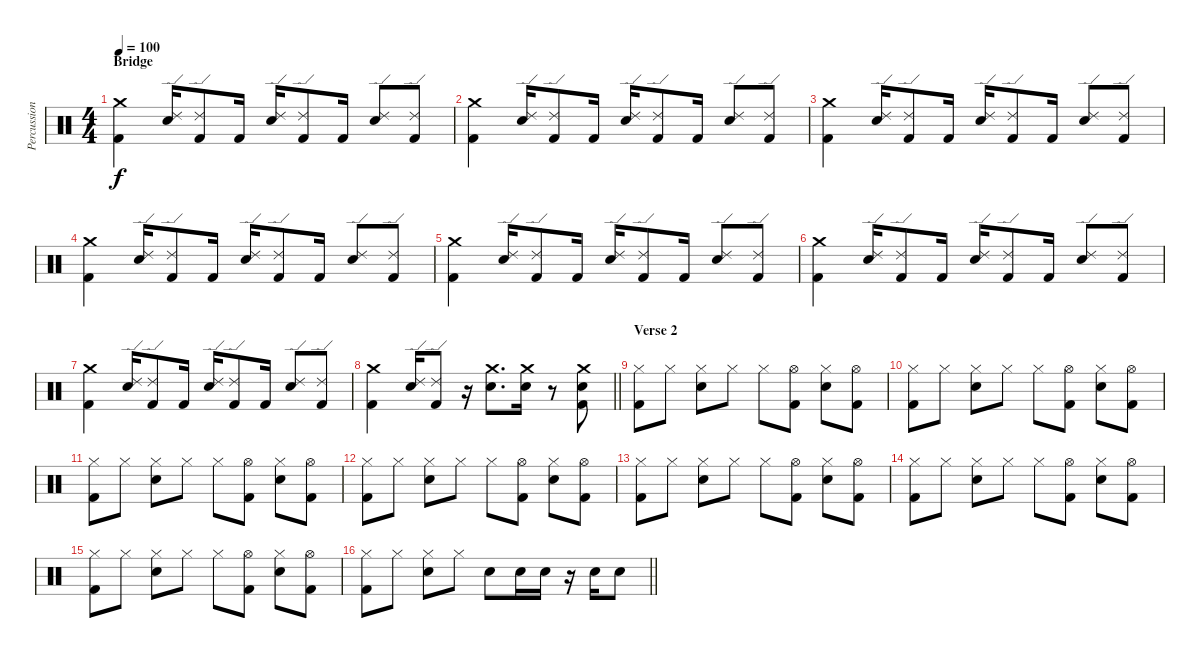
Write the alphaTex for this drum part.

\track ("Percussion" "Percussion") {instrument percussion}
\staff {score}
\articulation defaults
\ts (4 4)
\section ("" "Bridge")
\tempo 100
\clef neutral
\ks c
("Crash medium (hit)" "Kick (hit) 2").4{dy f} ("Ride (edge) 2" "Snare (hit) 2").16 ("Ride (edge) 2" "Kick (hit) 2").8 "Kick (hit) 2".16 ("Ride (edge) 2" "Snare (hit) 2").16 ("Ride (edge) 2" "Kick (hit) 2").8 "Kick (hit) 2".16 ("Ride (edge) 2" "Snare (hit) 2").8 ("Ride (edge) 2" "Kick (hit) 2").8 |
("Crash medium (hit)" "Kick (hit) 2").4 ("Ride (edge) 2" "Snare (hit) 2").16 ("Ride (edge) 2" "Kick (hit) 2").8 "Kick (hit) 2".16 ("Ride (edge) 2" "Snare (hit) 2").16 ("Ride (edge) 2" "Kick (hit) 2").8 "Kick (hit) 2".16 ("Ride (edge) 2" "Snare (hit) 2").8 ("Ride (edge) 2" "Kick (hit) 2").8 |
("Crash medium (hit)" "Kick (hit) 2").4 ("Ride (edge) 2" "Snare (hit) 2").16 ("Ride (edge) 2" "Kick (hit) 2").8 "Kick (hit) 2".16 ("Ride (edge) 2" "Snare (hit) 2").16 ("Ride (edge) 2" "Kick (hit) 2").8 "Kick (hit) 2".16 ("Ride (edge) 2" "Snare (hit) 2").8 ("Ride (edge) 2" "Kick (hit) 2").8 |
("Crash medium (hit)" "Kick (hit) 2").4 ("Ride (edge) 2" "Snare (hit) 2").16 ("Ride (edge) 2" "Kick (hit) 2").8 "Kick (hit) 2".16 ("Ride (edge) 2" "Snare (hit) 2").16 ("Ride (edge) 2" "Kick (hit) 2").8 "Kick (hit) 2".16 ("Ride (edge) 2" "Snare (hit) 2").8 ("Ride (edge) 2" "Kick (hit) 2").8 |
("Crash medium (hit)" "Kick (hit) 2").4 ("Ride (edge) 2" "Snare (hit) 2").16 ("Ride (edge) 2" "Kick (hit) 2").8 "Kick (hit) 2".16 ("Ride (edge) 2" "Snare (hit) 2").16 ("Ride (edge) 2" "Kick (hit) 2").8 "Kick (hit) 2".16 ("Ride (edge) 2" "Snare (hit) 2").8 ("Ride (edge) 2" "Kick (hit) 2").8 |
("Crash medium (hit)" "Kick (hit) 2").4 ("Ride (edge) 2" "Snare (hit) 2").16 ("Ride (edge) 2" "Kick (hit) 2").8 "Kick (hit) 2".16 ("Ride (edge) 2" "Snare (hit) 2").16 ("Ride (edge) 2" "Kick (hit) 2").8 "Kick (hit) 2".16 ("Ride (edge) 2" "Snare (hit) 2").8 ("Ride (edge) 2" "Kick (hit) 2").8 |
("Crash medium (hit)" "Kick (hit) 2").4 ("Ride (edge) 2" "Snare (hit) 2").16 ("Ride (edge) 2" "Kick (hit) 2").8 "Kick (hit) 2".16 ("Ride (edge) 2" "Snare (hit) 2").16 ("Ride (edge) 2" "Kick (hit) 2").8 "Kick (hit) 2".16 ("Ride (edge) 2" "Snare (hit) 2").8 ("Ride (edge) 2" "Kick (hit) 2").8 |
\barLineRight lightlight
("Crash medium (hit)" "Kick (hit) 2").4 ("Ride (edge) 2" "Snare (hit) 2").16 ("Ride (edge) 2" "Kick (hit) 2").8 r.16 ("Crash medium (hit)" "Snare (hit) 2").8{d} ("Crash medium (hit)" "Snare (hit) 2").16 r.8 ("Crash medium (hit)" "Snare (hit) 2" "Kick (hit) 2").8 |
\section ("" "Verse 2")
("Hi-Hat (closed)" "Kick (hit) 2").8 "Hi-Hat (closed)".8 ("Hi-Hat (closed)" "Snare (hit) 2").8 "Hi-Hat (closed)".8 "Hi-Hat (closed)".8 ("Hi-Hat (open)" "Kick (hit) 2").8 ("Hi-Hat (closed)" "Snare (hit) 2").8 ("Hi-Hat (open)" "Kick (hit) 2").8 |
("Hi-Hat (closed)" "Kick (hit) 2").8 "Hi-Hat (closed)".8 ("Hi-Hat (closed)" "Snare (hit) 2").8 "Hi-Hat (closed)".8 "Hi-Hat (closed)".8 ("Hi-Hat (open)" "Kick (hit) 2").8 ("Hi-Hat (closed)" "Snare (hit) 2").8 ("Hi-Hat (open)" "Kick (hit) 2").8 |
("Hi-Hat (closed)" "Kick (hit) 2").8 "Hi-Hat (closed)".8 ("Hi-Hat (closed)" "Snare (hit) 2").8 "Hi-Hat (closed)".8 "Hi-Hat (closed)".8 ("Hi-Hat (open)" "Kick (hit) 2").8 ("Hi-Hat (closed)" "Snare (hit) 2").8 ("Hi-Hat (open)" "Kick (hit) 2").8 |
("Hi-Hat (closed)" "Kick (hit) 2").8 "Hi-Hat (closed)".8 ("Hi-Hat (closed)" "Snare (hit) 2").8 "Hi-Hat (closed)".8 "Hi-Hat (closed)".8 ("Hi-Hat (open)" "Kick (hit) 2").8 ("Hi-Hat (closed)" "Snare (hit) 2").8 ("Hi-Hat (open)" "Kick (hit) 2").8 |
("Hi-Hat (closed)" "Kick (hit) 2").8 "Hi-Hat (closed)".8 ("Hi-Hat (closed)" "Snare (hit) 2").8 "Hi-Hat (closed)".8 "Hi-Hat (closed)".8 ("Hi-Hat (open)" "Kick (hit) 2").8 ("Hi-Hat (closed)" "Snare (hit) 2").8 ("Hi-Hat (open)" "Kick (hit) 2").8 |
("Hi-Hat (closed)" "Kick (hit) 2").8 "Hi-Hat (closed)".8 ("Hi-Hat (closed)" "Snare (hit) 2").8 "Hi-Hat (closed)".8 "Hi-Hat (closed)".8 ("Hi-Hat (open)" "Kick (hit) 2").8 ("Hi-Hat (closed)" "Snare (hit) 2").8 ("Hi-Hat (open)" "Kick (hit) 2").8 |
("Hi-Hat (closed)" "Kick (hit) 2").8 "Hi-Hat (closed)".8 ("Hi-Hat (closed)" "Snare (hit) 2").8 "Hi-Hat (closed)".8 "Hi-Hat (closed)".8 ("Hi-Hat (open)" "Kick (hit) 2").8 ("Hi-Hat (closed)" "Snare (hit) 2").8 ("Hi-Hat (open)" "Kick (hit) 2").8 |
\barLineRight lightlight
("Hi-Hat (closed)" "Kick (hit) 2").8 "Hi-Hat (closed)".8 ("Hi-Hat (closed)" "Snare (hit) 2").8 "Hi-Hat (closed)".8 "Snare (hit) 2".8 "Snare (hit) 2".16 "Snare (hit) 2".16 r.16 "Snare (hit) 2".16 "Snare (hit) 2".8
